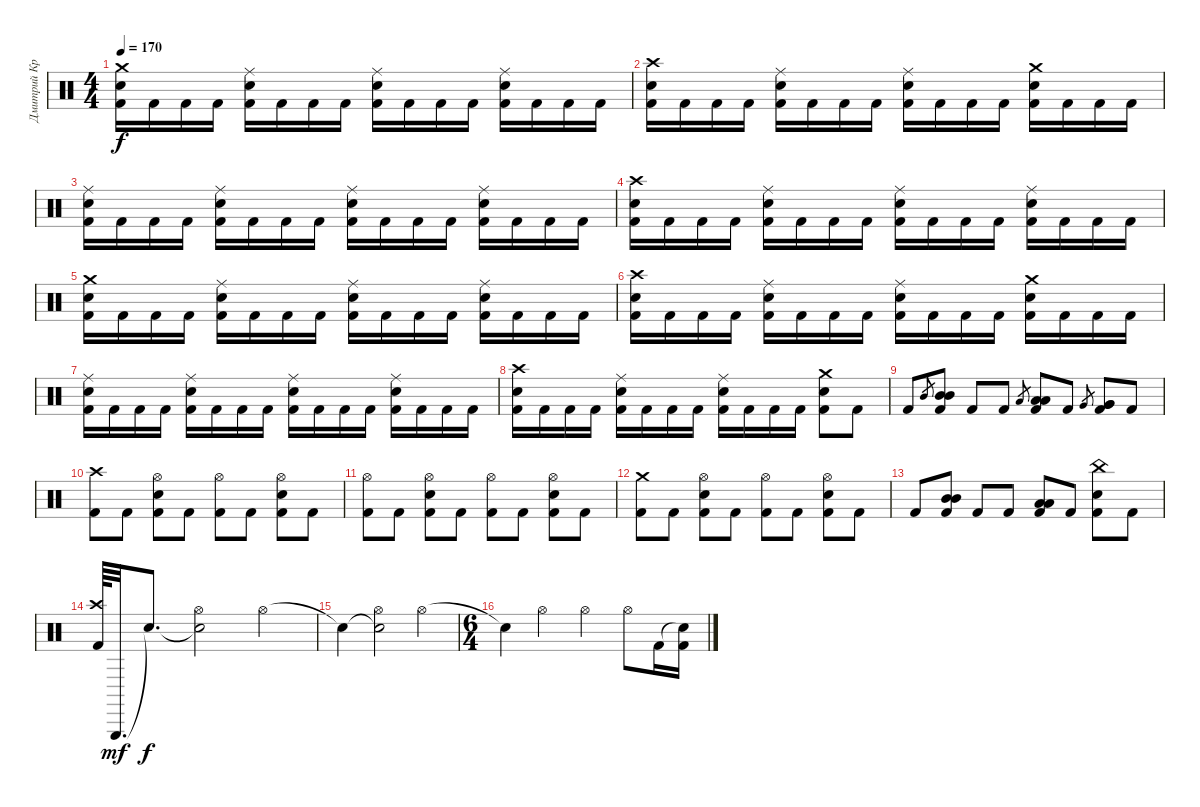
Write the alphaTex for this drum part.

\track ("Дмитрий Кривенков" "Дмитрий Кр") {instrument percussion}
\staff {score}
\articulation defaults
\ts (4 4)
\tempo 170
\clef neutral
\ks c
("Crash medium (hit)" "Electric Snare (hit)" "Kick (hit) 2").16{dy f} "Kick (hit) 2".16 "Kick (hit) 2".16 "Kick (hit) 2".16 ("Ride (middle)" "Electric Snare (hit)" "Kick (hit) 2").16 "Kick (hit) 2".16 "Kick (hit) 2".16 "Kick (hit) 2".16 ("Ride (middle)" "Electric Snare (hit)" "Kick (hit) 2").16 "Kick (hit) 2".16 "Kick (hit) 2".16 "Kick (hit) 2".16 ("Ride (middle)" "Electric Snare (hit)" "Kick (hit) 2").16 "Kick (hit) 2".16 "Kick (hit) 2".16 "Kick (hit) 2".16 |
("Crash high (hit)" "Electric Snare (hit)" "Kick (hit) 2").16 "Kick (hit) 2".16 "Kick (hit) 2".16 "Kick (hit) 2".16 ("Ride (middle)" "Electric Snare (hit)" "Kick (hit) 2").16 "Kick (hit) 2".16 "Kick (hit) 2".16 "Kick (hit) 2".16 ("Ride (middle)" "Electric Snare (hit)" "Kick (hit) 2").16 "Kick (hit) 2".16 "Kick (hit) 2".16 "Kick (hit) 2".16 ("Crash medium (hit)" "Electric Snare (hit)" "Kick (hit) 2").16 "Kick (hit) 2".16 "Kick (hit) 2".16 "Kick (hit) 2".16 |
("Ride (middle)" "Electric Snare (hit)" "Kick (hit) 2").16 "Kick (hit) 2".16 "Kick (hit) 2".16 "Kick (hit) 2".16 ("Ride (middle)" "Electric Snare (hit)" "Kick (hit) 2").16 "Kick (hit) 2".16 "Kick (hit) 2".16 "Kick (hit) 2".16 ("Ride (middle)" "Electric Snare (hit)" "Kick (hit) 2").16 "Kick (hit) 2".16 "Kick (hit) 2".16 "Kick (hit) 2".16 ("Ride (middle)" "Electric Snare (hit)" "Kick (hit) 2").16 "Kick (hit) 2".16 "Kick (hit) 2".16 "Kick (hit) 2".16 |
("Crash high (hit)" "Electric Snare (hit)" "Kick (hit) 2").16 "Kick (hit) 2".16 "Kick (hit) 2".16 "Kick (hit) 2".16 ("Ride (middle)" "Electric Snare (hit)" "Kick (hit) 2").16 "Kick (hit) 2".16 "Kick (hit) 2".16 "Kick (hit) 2".16 ("Ride (middle)" "Electric Snare (hit)" "Kick (hit) 2").16 "Kick (hit) 2".16 "Kick (hit) 2".16 "Kick (hit) 2".16 ("Ride (middle)" "Electric Snare (hit)" "Kick (hit) 2").16 "Kick (hit) 2".16 "Kick (hit) 2".16 "Kick (hit) 2".16 |
("Crash medium (hit)" "Electric Snare (hit)" "Kick (hit) 2").16 "Kick (hit) 2".16 "Kick (hit) 2".16 "Kick (hit) 2".16 ("Ride (middle)" "Electric Snare (hit)" "Kick (hit) 2").16 "Kick (hit) 2".16 "Kick (hit) 2".16 "Kick (hit) 2".16 ("Ride (middle)" "Electric Snare (hit)" "Kick (hit) 2").16 "Kick (hit) 2".16 "Kick (hit) 2".16 "Kick (hit) 2".16 ("Ride (middle)" "Electric Snare (hit)" "Kick (hit) 2").16 "Kick (hit) 2".16 "Kick (hit) 2".16 "Kick (hit) 2".16 |
("Crash high (hit)" "Electric Snare (hit)" "Kick (hit) 2").16 "Kick (hit) 2".16 "Kick (hit) 2".16 "Kick (hit) 2".16 ("Ride (middle)" "Electric Snare (hit)" "Kick (hit) 2").16 "Kick (hit) 2".16 "Kick (hit) 2".16 "Kick (hit) 2".16 ("Ride (middle)" "Electric Snare (hit)" "Kick (hit) 2").16 "Kick (hit) 2".16 "Kick (hit) 2".16 "Kick (hit) 2".16 ("Crash medium (hit)" "Electric Snare (hit)" "Kick (hit) 2").16 "Kick (hit) 2".16 "Kick (hit) 2".16 "Kick (hit) 2".16 |
("Ride (middle)" "Electric Snare (hit)" "Kick (hit) 2").16 "Kick (hit) 2".16 "Kick (hit) 2".16 "Kick (hit) 2".16 ("Ride (middle)" "Electric Snare (hit)" "Kick (hit) 2").16 "Kick (hit) 2".16 "Kick (hit) 2".16 "Kick (hit) 2".16 ("Ride (middle)" "Electric Snare (hit)" "Kick (hit) 2").16 "Kick (hit) 2".16 "Kick (hit) 2".16 "Kick (hit) 2".16 ("Ride (middle)" "Electric Snare (hit)" "Kick (hit) 2").16 "Kick (hit) 2".16 "Kick (hit) 2".16 "Kick (hit) 2".16 |
("Crash high (hit)" "Electric Snare (hit)" "Kick (hit) 2").16 "Kick (hit) 2".16 "Kick (hit) 2".16 "Kick (hit) 2".16 ("Ride (middle)" "Electric Snare (hit)" "Kick (hit) 2").16 "Kick (hit) 2".16 "Kick (hit) 2".16 "Kick (hit) 2".16 ("Ride (middle)" "Electric Snare (hit)" "Kick (hit) 2").16 "Kick (hit) 2".16 "Kick (hit) 2".16 "Kick (hit) 2".16 ("Crash medium (hit)" "Electric Snare (hit)" "Kick (hit) 2").8 "Kick (hit) 2".8 |
"Kick (hit) 2".8 "Mid Tom (hit)".8{gr} ("Mid Tom (hit)" "Mid Tom (hit)" "Kick (hit) 2").8 "Kick (hit) 2".8 "Kick (hit) 2".8 "Low Tom (hit)".8{gr} ("Low Tom (hit)" "Low Tom (hit)" "Kick (hit) 2").8 "Kick (hit) 2".8 "Very Low Tom (hit)".8{gr} ("Very Low Tom (hit)" "Very Low Tom (hit)" "Kick (hit) 2").8 "Kick (hit) 2".8 |
("Crash high (hit)" "Kick (hit) 2").8 "Kick (hit) 2".8 ("Hi-Hat (open)" "Electric Snare (hit)" "Kick (hit) 2").8 "Kick (hit) 2".8 ("Hi-Hat (open)" "Kick (hit) 2").8 "Kick (hit) 2".8 ("Hi-Hat (open)" "Electric Snare (hit)" "Kick (hit) 2").8 "Kick (hit) 2".8 |
("Hi-Hat (open)" "Kick (hit) 2").8 "Kick (hit) 2".8 ("Hi-Hat (open)" "Electric Snare (hit)" "Kick (hit) 2").8 "Kick (hit) 2".8 ("Hi-Hat (open)" "Kick (hit) 2").8 "Kick (hit) 2".8 ("Hi-Hat (open)" "Electric Snare (hit)" "Kick (hit) 2").8 "Kick (hit) 2".8 |
("Crash medium (hit)" "Kick (hit) 2").8 "Kick (hit) 2".8 ("Hi-Hat (open)" "Electric Snare (hit)" "Kick (hit) 2").8 "Kick (hit) 2".8 ("Hi-Hat (open)" "Kick (hit) 2").8 "Kick (hit) 2".8 ("Hi-Hat (open)" "Electric Snare (hit)" "Kick (hit) 2").8 "Kick (hit) 2".8 |
"Kick (hit) 2".8 ("Mid Tom (hit)" "Mid Tom (hit)" "Kick (hit) 2").8 "Kick (hit) 2".8 "Kick (hit) 2".8 ("Low Tom (hit)" "Low Tom (hit)" "Kick (hit) 2").8 "Kick (hit) 2".8 ("China (hit)" "Electric Snare (hit)" "Kick (hit) 2").8 "Kick (hit) 2".8 |
("Crash high (hit)" "Kick (hit) 2").64 "Triangle (hit)".32{d dy mf} "Snare (hit)"{t}.8{d dy f} ("Snare (hit)"{t} "Hi-Hat (open)").2 "Hi-Hat (open)".4 |
"Snare (hit)"{t}.4 ("Snare (hit)"{t} "Hi-Hat (open)").2 "Hi-Hat (open)".4 |
\ts (6 4)
"Snare (hit)"{t}.4 "Hi-Hat (open)".2 "Hi-Hat (open)".2 "Hi-Hat (open)".8 "Kick (hit) 2".16 ("Snare (hit)"{t} "Kick (hit) 2").16
